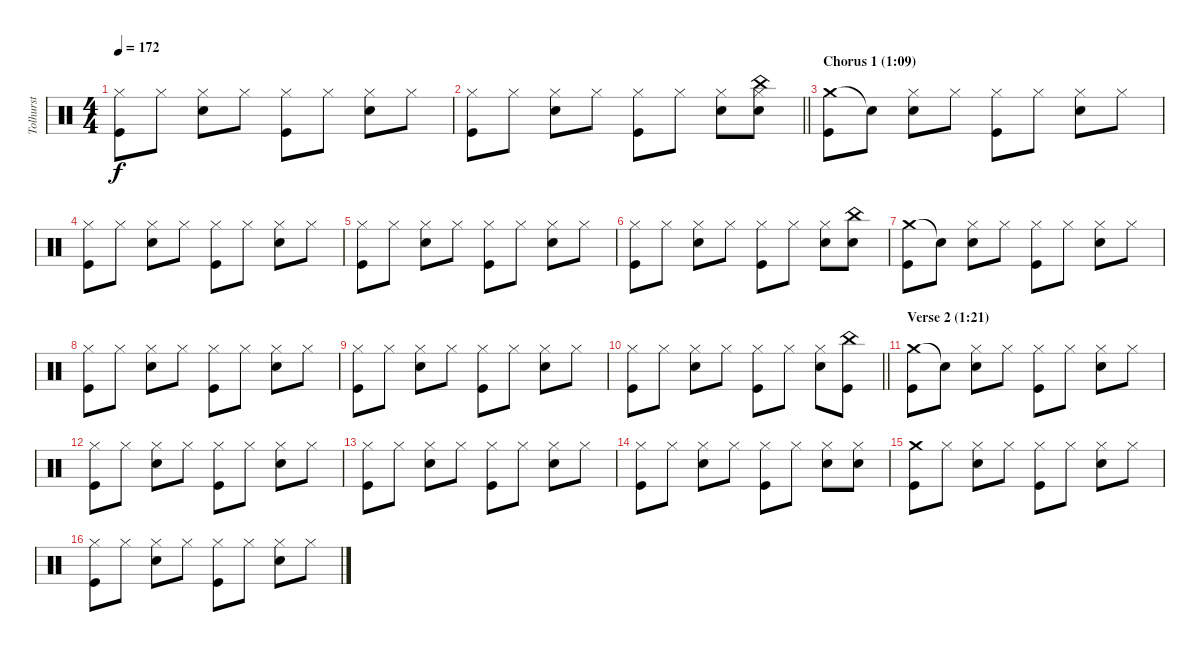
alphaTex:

\track ("Tolhurst" "Tolhurst") {instrument percussion}
\staff {score}
\articulation defaults
\ts (4 4)
\tempo 172
\clef neutral
\ks c
("Hi-Hat (closed)" "Kick (hit)").8{dy f} "Hi-Hat (closed)".8 ("Hi-Hat (closed)" "Snare (hit) 2").8 "Hi-Hat (closed)".8 ("Hi-Hat (closed)" "Kick (hit)").8 "Hi-Hat (closed)".8 ("Hi-Hat (closed)" "Snare (hit) 2").8 "Hi-Hat (closed)".8 |
\barLineRight lightlight
("Hi-Hat (closed)" "Kick (hit)").8 "Hi-Hat (closed)".8 ("Hi-Hat (closed)" "Snare (hit) 2").8 "Hi-Hat (closed)".8 ("Hi-Hat (closed)" "Kick (hit)").8 "Hi-Hat (closed)".8 ("Hi-Hat (closed)" "Snare (hit) 2").8 ("China (hit)" "Hi-Hat (closed)" "Snare (hit) 2").8 |
\section ("" "Chorus 1 (1:09)")
("Crash medium (hit)" "Kick (hit)").8 "Snare (hit)"{t}.8 ("Hi-Hat (closed)" "Snare (hit) 2").8 "Hi-Hat (closed)".8 ("Hi-Hat (closed)" "Kick (hit)").8 "Hi-Hat (closed)".8 ("Hi-Hat (closed)" "Snare (hit) 2").8 "Hi-Hat (closed)".8 |
("Hi-Hat (closed)" "Kick (hit)").8 "Hi-Hat (closed)".8 ("Hi-Hat (closed)" "Snare (hit) 2").8 "Hi-Hat (closed)".8 ("Hi-Hat (closed)" "Kick (hit)").8 "Hi-Hat (closed)".8 ("Hi-Hat (closed)" "Snare (hit) 2").8 "Hi-Hat (closed)".8 |
("Hi-Hat (closed)" "Kick (hit)").8 "Hi-Hat (closed)".8 ("Hi-Hat (closed)" "Snare (hit) 2").8 "Hi-Hat (closed)".8 ("Hi-Hat (closed)" "Kick (hit)").8 "Hi-Hat (closed)".8 ("Hi-Hat (closed)" "Snare (hit) 2").8 "Hi-Hat (closed)".8 |
("Hi-Hat (closed)" "Kick (hit)").8 "Hi-Hat (closed)".8 ("Hi-Hat (closed)" "Snare (hit) 2").8 "Hi-Hat (closed)".8 ("Hi-Hat (closed)" "Kick (hit)").8 "Hi-Hat (closed)".8 ("Hi-Hat (closed)" "Snare (hit) 2").8 ("China (hit)" "Snare (hit) 2").8 |
("Crash medium (hit)" "Kick (hit)").8 "Snare (hit)"{t}.8 ("Hi-Hat (closed)" "Snare (hit) 2").8 "Hi-Hat (closed)".8 ("Hi-Hat (closed)" "Kick (hit)").8 "Hi-Hat (closed)".8 ("Hi-Hat (closed)" "Snare (hit) 2").8 "Hi-Hat (closed)".8 |
("Hi-Hat (closed)" "Kick (hit)").8 "Hi-Hat (closed)".8 ("Hi-Hat (closed)" "Snare (hit) 2").8 "Hi-Hat (closed)".8 ("Hi-Hat (closed)" "Kick (hit)").8 "Hi-Hat (closed)".8 ("Hi-Hat (closed)" "Snare (hit) 2").8 "Hi-Hat (closed)".8 |
("Hi-Hat (closed)" "Kick (hit)").8 "Hi-Hat (closed)".8 ("Hi-Hat (closed)" "Snare (hit) 2").8 "Hi-Hat (closed)".8 ("Hi-Hat (closed)" "Kick (hit)").8 "Hi-Hat (closed)".8 ("Hi-Hat (closed)" "Snare (hit) 2").8 "Hi-Hat (closed)".8 |
\barLineRight lightlight
("Hi-Hat (closed)" "Kick (hit)").8 "Hi-Hat (closed)".8 ("Hi-Hat (closed)" "Snare (hit) 2").8 "Hi-Hat (closed)".8 ("Hi-Hat (closed)" "Kick (hit)").8 "Hi-Hat (closed)".8 ("Hi-Hat (closed)" "Snare (hit) 2").8 ("China (hit)" "Kick (hit)").8 |
\section ("" "Verse 2 (1:21)")
("Crash medium (hit)" "Kick (hit)").8 "Snare (hit)"{t}.8 ("Hi-Hat (closed)" "Snare (hit) 2").8 "Hi-Hat (closed)".8 ("Hi-Hat (closed)" "Kick (hit)").8 "Hi-Hat (closed)".8 ("Hi-Hat (closed)" "Snare (hit) 2").8 "Hi-Hat (closed)".8 |
("Hi-Hat (closed)" "Kick (hit)").8 "Hi-Hat (closed)".8 ("Hi-Hat (closed)" "Snare (hit) 2").8 "Hi-Hat (closed)".8 ("Hi-Hat (closed)" "Kick (hit)").8 "Hi-Hat (closed)".8 ("Hi-Hat (closed)" "Snare (hit) 2").8 "Hi-Hat (closed)".8 |
("Hi-Hat (closed)" "Kick (hit)").8 "Hi-Hat (closed)".8 ("Hi-Hat (closed)" "Snare (hit) 2").8 "Hi-Hat (closed)".8 ("Hi-Hat (closed)" "Kick (hit)").8 "Hi-Hat (closed)".8 ("Hi-Hat (closed)" "Snare (hit) 2").8 "Hi-Hat (closed)".8 |
("Hi-Hat (closed)" "Kick (hit)").8 "Hi-Hat (closed)".8 ("Hi-Hat (closed)" "Snare (hit) 2").8 "Hi-Hat (closed)".8 ("Hi-Hat (closed)" "Kick (hit)").8 "Hi-Hat (closed)".8 ("Hi-Hat (closed)" "Snare (hit) 2").8 ("Hi-Hat (closed)" "Snare (hit) 2").8 |
("Crash medium (hit)" "Kick (hit)").8 "Hi-Hat (closed)".8 ("Hi-Hat (closed)" "Snare (hit) 2").8 "Hi-Hat (closed)".8 ("Hi-Hat (closed)" "Kick (hit)").8 "Hi-Hat (closed)".8 ("Hi-Hat (closed)" "Snare (hit) 2").8 "Hi-Hat (closed)".8 |
("Hi-Hat (closed)" "Kick (hit)").8 "Hi-Hat (closed)".8 ("Hi-Hat (closed)" "Snare (hit) 2").8 "Hi-Hat (closed)".8 ("Hi-Hat (closed)" "Kick (hit)").8 "Hi-Hat (closed)".8 ("Hi-Hat (closed)" "Snare (hit) 2").8 "Hi-Hat (closed)".8
